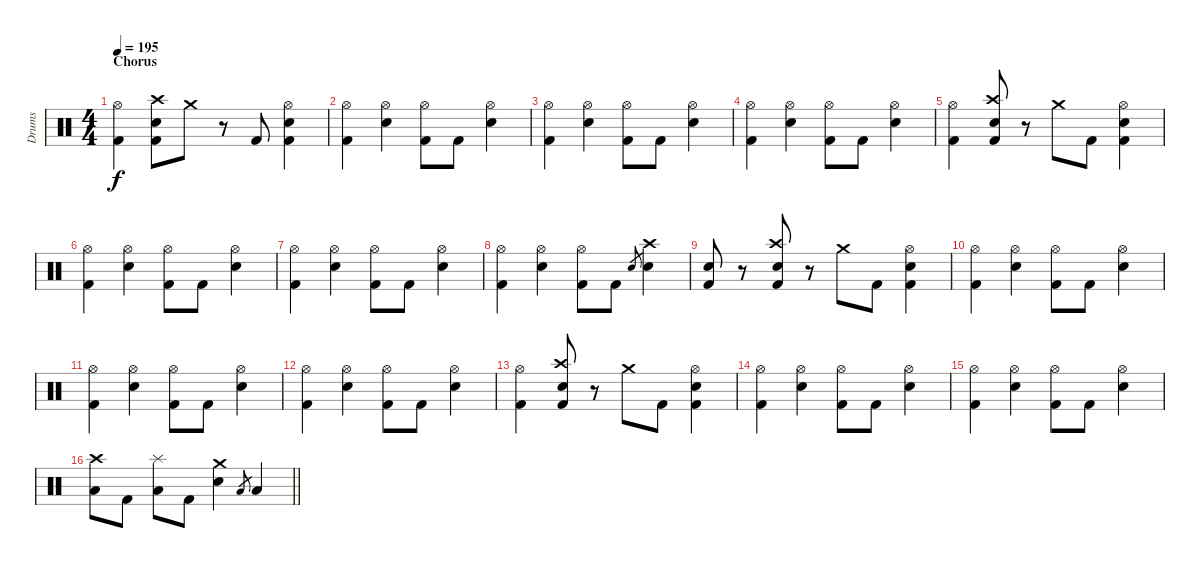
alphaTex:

\track ("Drums" "Drums") {instrument percussion}
\staff {score}
\articulation defaults
\ts (4 4)
\section ("" "Chorus")
\tempo 195
\clef neutral
\ks c
("Hi-Hat (open)" "Kick (hit) 2").4{dy f} ("Crash high (hit)" "Snare (hit) 2" "Kick (hit) 2").8 "Crash medium (hit)".8 r.8 "Kick (hit) 2".8 ("Hi-Hat (open)" "Snare (hit) 2" "Kick (hit) 2").4 |
("Hi-Hat (open)" "Kick (hit) 2").4 ("Hi-Hat (open)" "Snare (hit) 2").4 ("Hi-Hat (open)" "Kick (hit) 2").8 "Kick (hit) 2".8 ("Hi-Hat (open)" "Snare (hit) 2").4 |
("Hi-Hat (open)" "Kick (hit) 2").4 ("Hi-Hat (open)" "Snare (hit) 2").4 ("Hi-Hat (open)" "Kick (hit) 2").8 "Kick (hit) 2".8 ("Hi-Hat (open)" "Snare (hit) 2").4 |
("Hi-Hat (open)" "Kick (hit) 2").4 ("Hi-Hat (open)" "Snare (hit) 2").4 ("Hi-Hat (open)" "Kick (hit) 2").8 "Kick (hit) 2".8 ("Hi-Hat (open)" "Snare (hit) 2").4 |
("Hi-Hat (open)" "Kick (hit) 2").4 ("Crash high (hit)" "Snare (hit) 2" "Kick (hit) 2").8 r.8 "Crash medium (hit)".8 "Kick (hit) 2".8 ("Hi-Hat (open)" "Snare (hit) 2" "Kick (hit) 2").4 |
("Hi-Hat (open)" "Kick (hit) 2").4 ("Hi-Hat (open)" "Snare (hit) 2").4 ("Hi-Hat (open)" "Kick (hit) 2").8 "Kick (hit) 2".8 ("Hi-Hat (open)" "Snare (hit) 2").4 |
("Hi-Hat (open)" "Kick (hit) 2").4 ("Hi-Hat (open)" "Snare (hit) 2").4 ("Hi-Hat (open)" "Kick (hit) 2").8 "Kick (hit) 2".8 ("Hi-Hat (open)" "Snare (hit) 2").4 |
("Hi-Hat (open)" "Kick (hit) 2").4 ("Hi-Hat (open)" "Snare (hit) 2").4 ("Hi-Hat (open)" "Kick (hit) 2").8 "Kick (hit) 2".8 "Snare (hit) 2".8{gr} ("Crash high (hit)" "Snare (hit) 2").4 |
("Snare (hit) 2" "Kick (hit) 2").8 r.8 ("Crash high (hit)" "Snare (hit) 2" "Kick (hit) 2").8 r.8 "Crash medium (hit)".8 "Kick (hit) 2".8 ("Hi-Hat (open)" "Snare (hit) 2" "Kick (hit) 2").4 |
("Hi-Hat (open)" "Kick (hit) 2").4 ("Hi-Hat (open)" "Snare (hit) 2").4 ("Hi-Hat (open)" "Kick (hit) 2").8 "Kick (hit) 2".8 ("Hi-Hat (open)" "Snare (hit) 2").4 |
("Hi-Hat (open)" "Kick (hit) 2").4 ("Hi-Hat (open)" "Snare (hit) 2").4 ("Hi-Hat (open)" "Kick (hit) 2").8 "Kick (hit) 2".8 ("Hi-Hat (open)" "Snare (hit) 2").4 |
("Hi-Hat (open)" "Kick (hit) 2").4 ("Hi-Hat (open)" "Snare (hit) 2").4 ("Hi-Hat (open)" "Kick (hit) 2").8 "Kick (hit) 2".8 ("Hi-Hat (open)" "Snare (hit) 2").4 |
("Hi-Hat (open)" "Kick (hit) 2").4 ("Crash high (hit)" "Snare (hit) 2" "Kick (hit) 2").8 r.8 "Crash medium (hit)".8 "Kick (hit) 2".8 ("Hi-Hat (open)" "Snare (hit) 2" "Kick (hit) 2").4 |
("Hi-Hat (open)" "Kick (hit) 2").4 ("Hi-Hat (open)" "Snare (hit) 2").4 ("Hi-Hat (open)" "Kick (hit) 2").8 "Kick (hit) 2".8 ("Hi-Hat (open)" "Snare (hit) 2").4 |
("Hi-Hat (open)" "Kick (hit) 2").4 ("Hi-Hat (open)" "Snare (hit) 2").4 ("Hi-Hat (open)" "Kick (hit) 2").8 "Kick (hit) 2".8 ("Hi-Hat (open)" "Snare (hit) 2").4 |
\barLineRight lightlight
("Crash high (hit)" "Low Tom (hit)").8 "Kick (hit) 2".8 ("Splash (hit)" "Low Tom (hit)").8 "Kick (hit) 2".8 ("Crash medium (hit)" "Snare (hit) 2").4 "Low Floor Tom (hit)".8{gr} "Low Floor Tom (hit)".4
